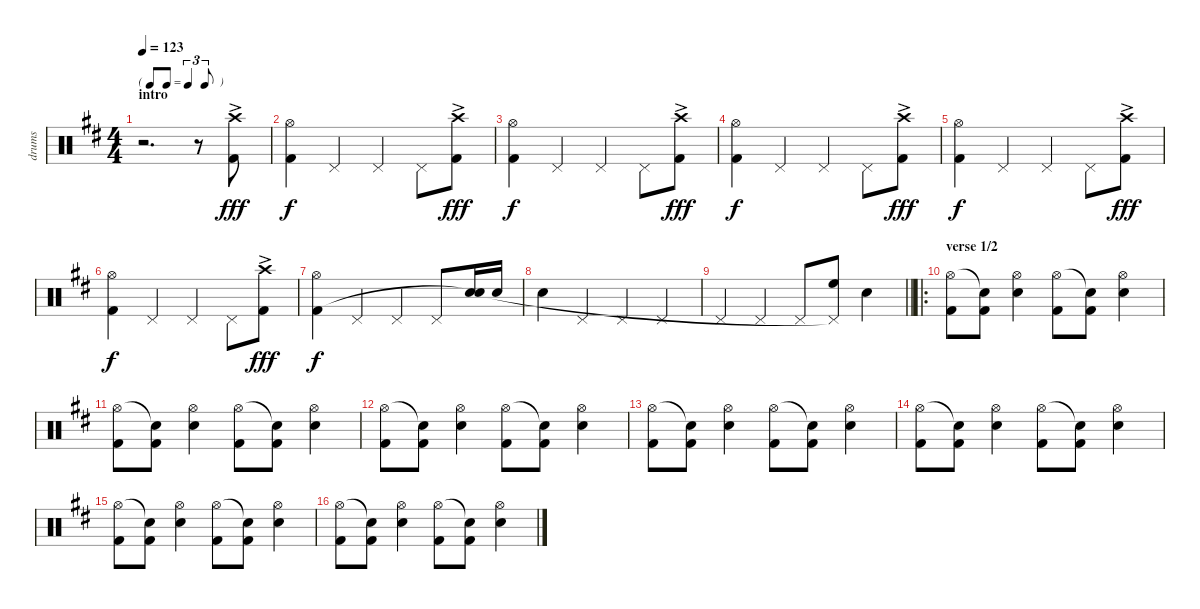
\track ("drums" "drums") {instrument percussion}
\staff {score}
\articulation defaults
\ts (4 4)
\tf triplet8th
\section ("" "intro ")
\tempo 123
\clef neutral
\ks d
r.2{d dy fff} r.8 ("Crash high (hit)"{ac} "Kick (hit) 2").8 |
("Hi-Hat (open)" "Kick (hit) 2").4{dy f} "Pedal Hi-Hat (hit)".4 "Pedal Hi-Hat (hit)".4 "Pedal Hi-Hat (hit)".8 ("Crash high (hit)"{ac} "Kick (hit) 2").8{dy fff} |
("Hi-Hat (open)" "Kick (hit) 2").4{dy f} "Pedal Hi-Hat (hit)".4 "Pedal Hi-Hat (hit)".4 "Pedal Hi-Hat (hit)".8 ("Crash high (hit)"{ac} "Kick (hit) 2").8{dy fff} |
("Hi-Hat (open)" "Kick (hit) 2").4{dy f} "Pedal Hi-Hat (hit)".4 "Pedal Hi-Hat (hit)".4 "Pedal Hi-Hat (hit)".8 ("Crash high (hit)"{ac} "Kick (hit) 2").8{dy fff} |
("Hi-Hat (open)" "Kick (hit) 2").4{dy f} "Pedal Hi-Hat (hit)".4 "Pedal Hi-Hat (hit)".4 "Pedal Hi-Hat (hit)".8 ("Crash high (hit)"{ac} "Kick (hit) 2").8{dy fff} |
("Hi-Hat (open)" "Kick (hit) 2").4{dy f} "Pedal Hi-Hat (hit)".4 "Pedal Hi-Hat (hit)".4 "Pedal Hi-Hat (hit)".8 ("Crash high (hit)"{ac} "Kick (hit) 2").8{dy fff} |
("Hi-Hat (open)" "Kick (hit) 2").4{dy f} "Pedal Hi-Hat (hit)".4 "Pedal Hi-Hat (hit)".4 "Pedal Hi-Hat (hit)".8 ("Snare (hit) 2" "Snare (hit)"{t}).16 "Snare (hit) 2".16 |
"Snare (hit) 2".4 "Pedal Hi-Hat (hit)".4 "Pedal Hi-Hat (hit)".4 "Pedal Hi-Hat (hit)".4 |
\barLineRight lightlight "Pedal Hi-Hat (hit)".4 "Pedal Hi-Hat (hit)".4 "Pedal Hi-Hat (hit)".8
("High Floor Tom (hit)" "Pedal Hi-Hat (hit)"{t}).8 "Snare (hit) 2".4 |
\ro
\section ("" "verse 1/2")
("Hi-Hat (open)" "Kick (hit) 2").8 ("Snare (hit)"{t} "Kick (hit) 2").8 ("Hi-Hat (open)" "Snare (hit) 2").4 ("Hi-Hat (open)" "Kick (hit) 2").8 ("Snare (hit)"{t} "Kick (hit) 2").8 ("Hi-Hat (open)" "Snare (hit) 2").4 |
("Hi-Hat (open)" "Kick (hit) 2").8 ("Snare (hit)"{t} "Kick (hit) 2").8 ("Hi-Hat (open)" "Snare (hit) 2").4 ("Hi-Hat (open)" "Kick (hit) 2").8 ("Snare (hit)"{t} "Kick (hit) 2").8 ("Hi-Hat (open)" "Snare (hit) 2").4 |
("Hi-Hat (open)" "Kick (hit) 2").8 ("Snare (hit)"{t} "Kick (hit) 2").8 ("Hi-Hat (open)" "Snare (hit) 2").4 ("Hi-Hat (open)" "Kick (hit) 2").8 ("Snare (hit)"{t} "Kick (hit) 2").8 ("Hi-Hat (open)" "Snare (hit) 2").4 |
("Hi-Hat (open)" "Kick (hit) 2").8 ("Snare (hit)"{t} "Kick (hit) 2").8 ("Hi-Hat (open)" "Snare (hit) 2").4 ("Hi-Hat (open)" "Kick (hit) 2").8 ("Snare (hit)"{t} "Kick (hit) 2").8 ("Hi-Hat (open)" "Snare (hit) 2").4 |
("Hi-Hat (open)" "Kick (hit) 2").8 ("Snare (hit)"{t} "Kick (hit) 2").8 ("Hi-Hat (open)" "Snare (hit) 2").4 ("Hi-Hat (open)" "Kick (hit) 2").8 ("Snare (hit)"{t} "Kick (hit) 2").8 ("Hi-Hat (open)" "Snare (hit) 2").4 |
("Hi-Hat (open)" "Kick (hit) 2").8 ("Snare (hit)"{t} "Kick (hit) 2").8 ("Hi-Hat (open)" "Snare (hit) 2").4 ("Hi-Hat (open)" "Kick (hit) 2").8 ("Snare (hit)"{t} "Kick (hit) 2").8 ("Hi-Hat (open)" "Snare (hit) 2").4 |
("Hi-Hat (open)" "Kick (hit) 2").8 ("Snare (hit)"{t} "Kick (hit) 2").8 ("Hi-Hat (open)" "Snare (hit) 2").4 ("Hi-Hat (open)" "Kick (hit) 2").8 ("Snare (hit)"{t} "Kick (hit) 2").8 ("Hi-Hat (open)" "Snare (hit) 2").4
